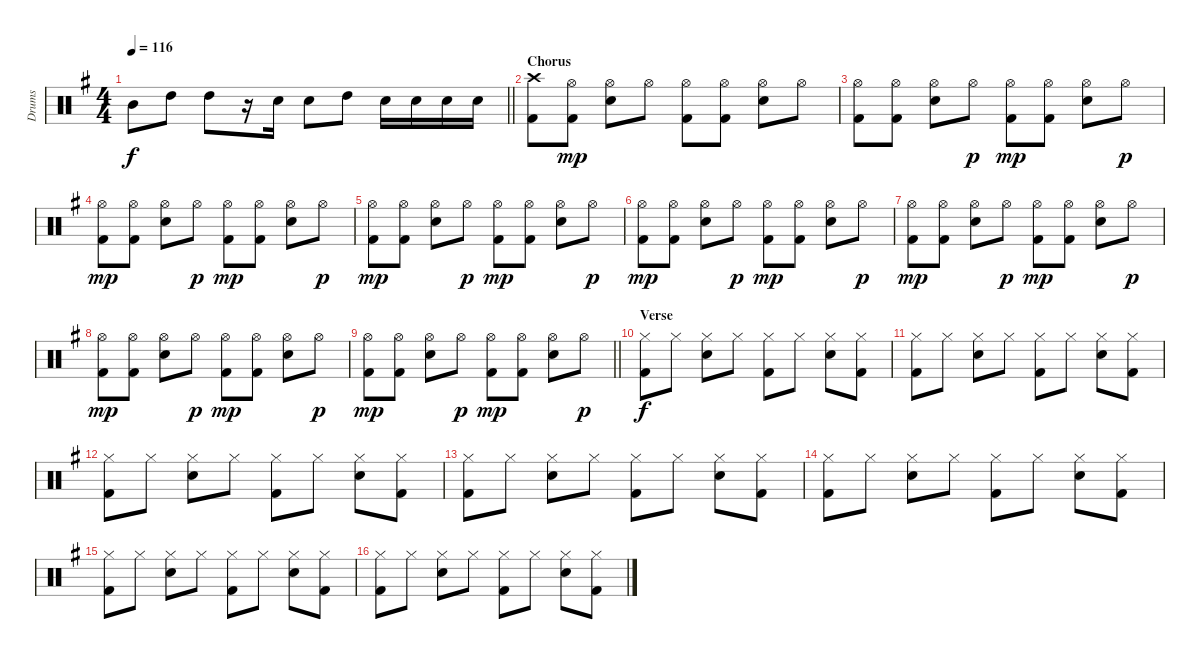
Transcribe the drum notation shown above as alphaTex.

\track ("Drums" "Drums") {instrument percussion}
\staff {score}
\articulation defaults
\ts (4 4)
\tempo 116
\clef neutral
\barLineRight lightlight
\ks g "Mid Tom (hit)".8{dy f} "High Tom (hit)".8 "High Tom (hit)".8
r.16 "Electric Snare (hit)".16 "Electric Snare (hit)".8 "High Tom (hit)".8 "Electric Snare (hit)".16 "Electric Snare (hit)".16 "Electric Snare (hit)".16 "Electric Snare (hit)".16 |
\section ("" "Chorus")
("Crash high (hit)" "Kick (hit) 2").8 ("Hi-Hat (open)" "Kick (hit) 2").8{dy mp} ("Hi-Hat (open)" "Electric Snare (hit)").8 "Hi-Hat (open)".8 ("Hi-Hat (open)" "Kick (hit) 2").8 ("Hi-Hat (open)" "Kick (hit) 2").8 ("Hi-Hat (open)" "Electric Snare (hit)").8 "Hi-Hat (open)".8 |
("Hi-Hat (open)" "Kick (hit) 2").8 ("Hi-Hat (open)" "Kick (hit) 2").8 ("Hi-Hat (open)" "Electric Snare (hit)").8 "Hi-Hat (open)".8{dy p} ("Hi-Hat (open)" "Kick (hit) 2").8{dy mp} ("Hi-Hat (open)" "Kick (hit) 2").8 ("Hi-Hat (open)" "Electric Snare (hit)").8 "Hi-Hat (open)".8{dy p} |
("Hi-Hat (open)" "Kick (hit) 2").8{dy mp} ("Hi-Hat (open)" "Kick (hit) 2").8 ("Hi-Hat (open)" "Electric Snare (hit)").8 "Hi-Hat (open)".8{dy p} ("Hi-Hat (open)" "Kick (hit) 2").8{dy mp} ("Hi-Hat (open)" "Kick (hit) 2").8 ("Hi-Hat (open)" "Electric Snare (hit)").8 "Hi-Hat (open)".8{dy p} |
("Hi-Hat (open)" "Kick (hit) 2").8{dy mp} ("Hi-Hat (open)" "Kick (hit) 2").8 ("Hi-Hat (open)" "Electric Snare (hit)").8 "Hi-Hat (open)".8{dy p} ("Hi-Hat (open)" "Kick (hit) 2").8{dy mp} ("Hi-Hat (open)" "Kick (hit) 2").8 ("Hi-Hat (open)" "Electric Snare (hit)").8 "Hi-Hat (open)".8{dy p} |
("Hi-Hat (open)" "Kick (hit) 2").8{dy mp} ("Hi-Hat (open)" "Kick (hit) 2").8 ("Hi-Hat (open)" "Electric Snare (hit)").8 "Hi-Hat (open)".8{dy p} ("Hi-Hat (open)" "Kick (hit) 2").8{dy mp} ("Hi-Hat (open)" "Kick (hit) 2").8 ("Hi-Hat (open)" "Electric Snare (hit)").8 "Hi-Hat (open)".8{dy p} |
("Hi-Hat (open)" "Kick (hit) 2").8{dy mp} ("Hi-Hat (open)" "Kick (hit) 2").8 ("Hi-Hat (open)" "Electric Snare (hit)").8 "Hi-Hat (open)".8{dy p} ("Hi-Hat (open)" "Kick (hit) 2").8{dy mp} ("Hi-Hat (open)" "Kick (hit) 2").8 ("Hi-Hat (open)" "Electric Snare (hit)").8 "Hi-Hat (open)".8{dy p} |
("Hi-Hat (open)" "Kick (hit) 2").8{dy mp} ("Hi-Hat (open)" "Kick (hit) 2").8 ("Hi-Hat (open)" "Electric Snare (hit)").8 "Hi-Hat (open)".8{dy p} ("Hi-Hat (open)" "Kick (hit) 2").8{dy mp} ("Hi-Hat (open)" "Kick (hit) 2").8 ("Hi-Hat (open)" "Electric Snare (hit)").8 "Hi-Hat (open)".8{dy p} |
\barLineRight lightlight
("Hi-Hat (open)" "Kick (hit) 2").8{dy mp} ("Hi-Hat (open)" "Kick (hit) 2").8 ("Hi-Hat (open)" "Electric Snare (hit)").8 "Hi-Hat (open)".8{dy p} ("Hi-Hat (open)" "Kick (hit) 2").8{dy mp} ("Hi-Hat (open)" "Kick (hit) 2").8 ("Hi-Hat (open)" "Electric Snare (hit)").8 "Hi-Hat (open)".8{dy p} |
\section ("" "Verse")
("Hi-Hat (closed)" "Kick (hit) 2").8{dy f} "Hi-Hat (closed)".8 ("Hi-Hat (closed)" "Electric Snare (hit)").8 "Hi-Hat (closed)".8 ("Hi-Hat (closed)" "Kick (hit) 2").8 "Hi-Hat (closed)".8 ("Hi-Hat (closed)" "Electric Snare (hit)").8 ("Hi-Hat (closed)" "Kick (hit) 2").8 |
("Hi-Hat (closed)" "Kick (hit) 2").8 "Hi-Hat (closed)".8 ("Hi-Hat (closed)" "Electric Snare (hit)").8 "Hi-Hat (closed)".8 ("Hi-Hat (closed)" "Kick (hit) 2").8 "Hi-Hat (closed)".8 ("Hi-Hat (closed)" "Electric Snare (hit)").8 ("Hi-Hat (closed)" "Kick (hit) 2").8 |
("Hi-Hat (closed)" "Kick (hit) 2").8 "Hi-Hat (closed)".8 ("Hi-Hat (closed)" "Electric Snare (hit)").8 "Hi-Hat (closed)".8 ("Hi-Hat (closed)" "Kick (hit) 2").8 "Hi-Hat (closed)".8 ("Hi-Hat (closed)" "Electric Snare (hit)").8 ("Hi-Hat (closed)" "Kick (hit) 2").8 |
("Hi-Hat (closed)" "Kick (hit) 2").8 "Hi-Hat (closed)".8 ("Hi-Hat (closed)" "Electric Snare (hit)").8 "Hi-Hat (closed)".8 ("Hi-Hat (closed)" "Kick (hit) 2").8 "Hi-Hat (closed)".8 ("Hi-Hat (closed)" "Electric Snare (hit)").8 ("Hi-Hat (closed)" "Kick (hit) 2").8 |
("Hi-Hat (closed)" "Kick (hit) 2").8 "Hi-Hat (closed)".8 ("Hi-Hat (closed)" "Electric Snare (hit)").8 "Hi-Hat (closed)".8 ("Hi-Hat (closed)" "Kick (hit) 2").8 "Hi-Hat (closed)".8 ("Hi-Hat (closed)" "Electric Snare (hit)").8 ("Hi-Hat (closed)" "Kick (hit) 2").8 |
("Hi-Hat (closed)" "Kick (hit) 2").8 "Hi-Hat (closed)".8 ("Hi-Hat (closed)" "Electric Snare (hit)").8 "Hi-Hat (closed)".8 ("Hi-Hat (closed)" "Kick (hit) 2").8 "Hi-Hat (closed)".8 ("Hi-Hat (closed)" "Electric Snare (hit)").8 ("Hi-Hat (closed)" "Kick (hit) 2").8 |
("Hi-Hat (closed)" "Kick (hit) 2").8 "Hi-Hat (closed)".8 ("Hi-Hat (closed)" "Electric Snare (hit)").8 "Hi-Hat (closed)".8 ("Hi-Hat (closed)" "Kick (hit) 2").8 "Hi-Hat (closed)".8 ("Hi-Hat (closed)" "Electric Snare (hit)").8 ("Hi-Hat (closed)" "Kick (hit) 2").8
